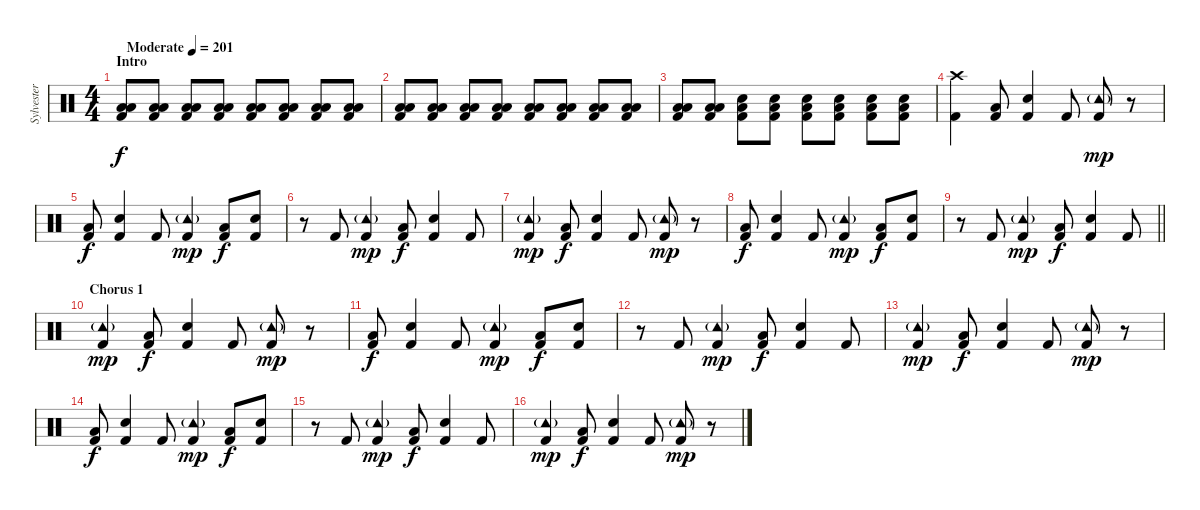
\track ("Sylvester Schlegel" "Sylvester ") {instrument percussion}
\staff {score}
\articulation defaults
\ts (4 4)
\section ("" "Intro")
\tempo (201 "Moderate")
\clef neutral
\ks c
("Low Tom (hit)" "Low Tom (hit)" "Kick (hit) 2").8{dy f} ("Low Tom (hit)" "Low Tom (hit)" "Kick (hit) 2").8 ("Low Tom (hit)" "Low Tom (hit)" "Kick (hit) 2").8 ("Low Tom (hit)" "Low Tom (hit)" "Kick (hit) 2").8 ("Low Tom (hit)" "Low Tom (hit)" "Kick (hit) 2").8 ("Low Tom (hit)" "Low Tom (hit)" "Kick (hit) 2").8 ("Low Tom (hit)" "Low Tom (hit)" "Kick (hit) 2").8 ("Low Tom (hit)" "Low Tom (hit)" "Kick (hit) 2").8 |
("Low Tom (hit)" "Low Tom (hit)" "Kick (hit) 2").8 ("Low Tom (hit)" "Low Tom (hit)" "Kick (hit) 2").8 ("Low Tom (hit)" "Low Tom (hit)" "Kick (hit) 2").8 ("Low Tom (hit)" "Low Tom (hit)" "Kick (hit) 2").8 ("Low Floor Tom (hit)" "Low Floor Tom (hit)" "Kick (hit) 2").8 ("Low Floor Tom (hit)" "Low Floor Tom (hit)" "Kick (hit) 2").8 ("Low Floor Tom (hit)" "Low Floor Tom (hit)" "Kick (hit) 2").8 ("Low Floor Tom (hit)" "Low Floor Tom (hit)" "Kick (hit) 2").8 |
("Low Floor Tom (hit)" "Low Floor Tom (hit)" "Kick (hit) 2").8 ("Low Floor Tom (hit)" "Low Floor Tom (hit)" "Kick (hit) 2").8 ("Electric Snare (hit)" "Low Tom (hit)" "Kick (hit) 2").8 ("Electric Snare (hit)" "Low Tom (hit)" "Kick (hit) 2").8 ("Electric Snare (hit)" "Low Tom (hit)" "Kick (hit) 2").8 ("Electric Snare (hit)" "Low Tom (hit)" "Kick (hit) 2").8 ("Electric Snare (hit)" "Low Tom (hit)" "Kick (hit) 2").8 ("Electric Snare (hit)" "Low Tom (hit)" "Kick (hit) 2").8 |
("Crash high (hit)" "Kick (hit) 2").4 ("Low Floor Tom (hit)" "Kick (hit) 2").8 ("Snare (hit) 2" "Kick (hit) 2").4 "Kick (hit) 2".8 ("Tambourine (hit)"{g} "Kick (hit) 2").8{dy mp} r.8 |
("Low Floor Tom (hit)" "Kick (hit) 2").8{dy f} ("Snare (hit) 2" "Kick (hit) 2").4 "Kick (hit) 2".8 ("Tambourine (hit)"{g} "Kick (hit) 2").4{dy mp} ("Low Floor Tom (hit)" "Kick (hit) 2").8{dy f} ("Snare (hit) 2" "Kick (hit) 2").8 |
r.8 "Kick (hit) 2".8 ("Tambourine (hit)"{g} "Kick (hit) 2").4{dy mp} ("Low Floor Tom (hit)" "Kick (hit) 2").8{dy f} ("Snare (hit) 2" "Kick (hit) 2").4 "Kick (hit) 2".8 |
("Tambourine (hit)"{g} "Kick (hit) 2").4{dy mp} ("Low Floor Tom (hit)" "Kick (hit) 2").8{dy f} ("Snare (hit) 2" "Kick (hit) 2").4 "Kick (hit) 2".8 ("Tambourine (hit)"{g} "Kick (hit) 2").8{dy mp} r.8 |
("Low Floor Tom (hit)" "Kick (hit) 2").8{dy f} ("Snare (hit) 2" "Kick (hit) 2").4 "Kick (hit) 2".8 ("Tambourine (hit)"{g} "Kick (hit) 2").4{dy mp} ("Low Floor Tom (hit)" "Kick (hit) 2").8{dy f} ("Snare (hit) 2" "Kick (hit) 2").8 |
\barLineRight lightlight
r.8 "Kick (hit) 2".8 ("Tambourine (hit)"{g} "Kick (hit) 2").4{dy mp} ("Low Floor Tom (hit)" "Kick (hit) 2").8{dy f} ("Snare (hit) 2" "Kick (hit) 2").4 "Kick (hit) 2".8 |
\section ("" "Chorus 1")
("Tambourine (hit)"{g} "Kick (hit) 2").4{dy mp} ("Low Floor Tom (hit)" "Kick (hit) 2").8{dy f} ("Snare (hit) 2" "Kick (hit) 2").4 "Kick (hit) 2".8 ("Tambourine (hit)"{g} "Kick (hit) 2").8{dy mp} r.8 |
("Low Floor Tom (hit)" "Kick (hit) 2").8{dy f} ("Snare (hit) 2" "Kick (hit) 2").4 "Kick (hit) 2".8 ("Tambourine (hit)"{g} "Kick (hit) 2").4{dy mp} ("Low Floor Tom (hit)" "Kick (hit) 2").8{dy f} ("Snare (hit) 2" "Kick (hit) 2").8 |
r.8 "Kick (hit) 2".8 ("Tambourine (hit)"{g} "Kick (hit) 2").4{dy mp} ("Low Floor Tom (hit)" "Kick (hit) 2").8{dy f} ("Snare (hit) 2" "Kick (hit) 2").4 "Kick (hit) 2".8 |
("Tambourine (hit)"{g} "Kick (hit) 2").4{dy mp} ("Low Floor Tom (hit)" "Kick (hit) 2").8{dy f} ("Snare (hit) 2" "Kick (hit) 2").4 "Kick (hit) 2".8 ("Tambourine (hit)"{g} "Kick (hit) 2").8{dy mp} r.8 |
("Low Floor Tom (hit)" "Kick (hit) 2").8{dy f} ("Snare (hit) 2" "Kick (hit) 2").4 "Kick (hit) 2".8 ("Tambourine (hit)"{g} "Kick (hit) 2").4{dy mp} ("Low Floor Tom (hit)" "Kick (hit) 2").8{dy f} ("Snare (hit) 2" "Kick (hit) 2").8 |
r.8 "Kick (hit) 2".8 ("Tambourine (hit)"{g} "Kick (hit) 2").4{dy mp} ("Low Floor Tom (hit)" "Kick (hit) 2").8{dy f} ("Snare (hit) 2" "Kick (hit) 2").4 "Kick (hit) 2".8 |
("Tambourine (hit)"{g} "Kick (hit) 2").4{dy mp} ("Low Floor Tom (hit)" "Kick (hit) 2").8{dy f} ("Snare (hit) 2" "Kick (hit) 2").4 "Kick (hit) 2".8 ("Tambourine (hit)"{g} "Kick (hit) 2").8{dy mp} r.8
